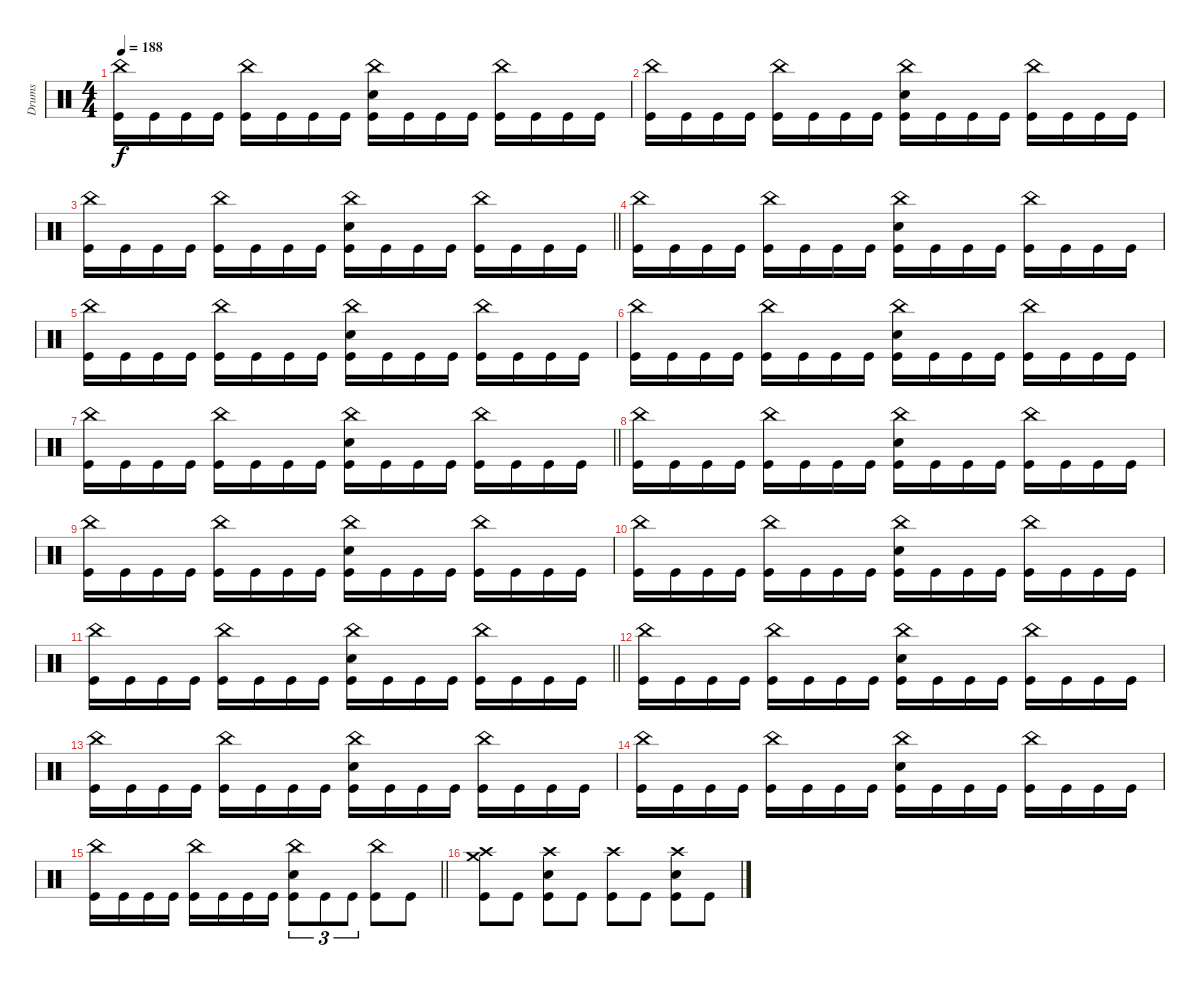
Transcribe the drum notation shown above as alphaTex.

\track ("Drums" "Drums") {instrument percussion}
\staff
\articulation defaults
\ts (4 4)
\tempo 188
\clef neutral
\ks c
("China (hit)" "Kick (hit)").16{dy f} "Kick (hit)".16 "Kick (hit)".16 "Kick (hit)".16 ("China (hit)" "Kick (hit)").16 "Kick (hit)".16 "Kick (hit)".16 "Kick (hit)".16 ("China (hit)" "Electric Snare (hit)" "Kick (hit)").16 "Kick (hit)".16 "Kick (hit)".16 "Kick (hit)".16 ("China (hit)" "Kick (hit)").16 "Kick (hit)".16 "Kick (hit)".16 "Kick (hit)".16 |
("China (hit)" "Kick (hit)").16 "Kick (hit)".16 "Kick (hit)".16 "Kick (hit)".16 ("China (hit)" "Kick (hit)").16 "Kick (hit)".16 "Kick (hit)".16 "Kick (hit)".16 ("China (hit)" "Electric Snare (hit)" "Kick (hit)").16 "Kick (hit)".16 "Kick (hit)".16 "Kick (hit)".16 ("China (hit)" "Kick (hit)").16 "Kick (hit)".16 "Kick (hit)".16 "Kick (hit)".16 |
\barLineRight lightlight
("China (hit)" "Kick (hit)").16 "Kick (hit)".16 "Kick (hit)".16 "Kick (hit)".16 ("China (hit)" "Kick (hit)").16 "Kick (hit)".16 "Kick (hit)".16 "Kick (hit)".16 ("China (hit)" "Electric Snare (hit)" "Kick (hit)").16 "Kick (hit)".16 "Kick (hit)".16 "Kick (hit)".16 ("China (hit)" "Kick (hit)").16 "Kick (hit)".16 "Kick (hit)".16 "Kick (hit)".16 |
("China (hit)" "Kick (hit)").16 "Kick (hit)".16 "Kick (hit)".16 "Kick (hit)".16 ("China (hit)" "Kick (hit)").16 "Kick (hit)".16 "Kick (hit)".16 "Kick (hit)".16 ("China (hit)" "Electric Snare (hit)" "Kick (hit)").16 "Kick (hit)".16 "Kick (hit)".16 "Kick (hit)".16 ("China (hit)" "Kick (hit)").16 "Kick (hit)".16 "Kick (hit)".16 "Kick (hit)".16 |
("China (hit)" "Kick (hit)").16 "Kick (hit)".16 "Kick (hit)".16 "Kick (hit)".16 ("China (hit)" "Kick (hit)").16 "Kick (hit)".16 "Kick (hit)".16 "Kick (hit)".16 ("China (hit)" "Electric Snare (hit)" "Kick (hit)").16 "Kick (hit)".16 "Kick (hit)".16 "Kick (hit)".16 ("China (hit)" "Kick (hit)").16 "Kick (hit)".16 "Kick (hit)".16 "Kick (hit)".16 |
("China (hit)" "Kick (hit)").16 "Kick (hit)".16 "Kick (hit)".16 "Kick (hit)".16 ("China (hit)" "Kick (hit)").16 "Kick (hit)".16 "Kick (hit)".16 "Kick (hit)".16 ("China (hit)" "Electric Snare (hit)" "Kick (hit)").16 "Kick (hit)".16 "Kick (hit)".16 "Kick (hit)".16 ("China (hit)" "Kick (hit)").16 "Kick (hit)".16 "Kick (hit)".16 "Kick (hit)".16 |
\barLineRight lightlight
("China (hit)" "Kick (hit)").16 "Kick (hit)".16 "Kick (hit)".16 "Kick (hit)".16 ("China (hit)" "Kick (hit)").16 "Kick (hit)".16 "Kick (hit)".16 "Kick (hit)".16 ("China (hit)" "Electric Snare (hit)" "Kick (hit)").16 "Kick (hit)".16 "Kick (hit)".16 "Kick (hit)".16 ("China (hit)" "Kick (hit)").16 "Kick (hit)".16 "Kick (hit)".16 "Kick (hit)".16 |
("China (hit)" "Kick (hit)").16 "Kick (hit)".16 "Kick (hit)".16 "Kick (hit)".16 ("China (hit)" "Kick (hit)").16 "Kick (hit)".16 "Kick (hit)".16 "Kick (hit)".16 ("China (hit)" "Electric Snare (hit)" "Kick (hit)").16 "Kick (hit)".16 "Kick (hit)".16 "Kick (hit)".16 ("China (hit)" "Kick (hit)").16 "Kick (hit)".16 "Kick (hit)".16 "Kick (hit)".16 |
("China (hit)" "Kick (hit)").16 "Kick (hit)".16 "Kick (hit)".16 "Kick (hit)".16 ("China (hit)" "Kick (hit)").16 "Kick (hit)".16 "Kick (hit)".16 "Kick (hit)".16 ("China (hit)" "Electric Snare (hit)" "Kick (hit)").16 "Kick (hit)".16 "Kick (hit)".16 "Kick (hit)".16 ("China (hit)" "Kick (hit)").16 "Kick (hit)".16 "Kick (hit)".16 "Kick (hit)".16 |
("China (hit)" "Kick (hit)").16 "Kick (hit)".16 "Kick (hit)".16 "Kick (hit)".16 ("China (hit)" "Kick (hit)").16 "Kick (hit)".16 "Kick (hit)".16 "Kick (hit)".16 ("China (hit)" "Electric Snare (hit)" "Kick (hit)").16 "Kick (hit)".16 "Kick (hit)".16 "Kick (hit)".16 ("China (hit)" "Kick (hit)").16 "Kick (hit)".16 "Kick (hit)".16 "Kick (hit)".16 |
\barLineRight lightlight
("China (hit)" "Kick (hit)").16 "Kick (hit)".16 "Kick (hit)".16 "Kick (hit)".16 ("China (hit)" "Kick (hit)").16 "Kick (hit)".16 "Kick (hit)".16 "Kick (hit)".16 ("China (hit)" "Electric Snare (hit)" "Kick (hit)").16 "Kick (hit)".16 "Kick (hit)".16 "Kick (hit)".16 ("China (hit)" "Kick (hit)").16 "Kick (hit)".16 "Kick (hit)".16 "Kick (hit)".16 |
("China (hit)" "Kick (hit)").16 "Kick (hit)".16 "Kick (hit)".16 "Kick (hit)".16 ("China (hit)" "Kick (hit)").16 "Kick (hit)".16 "Kick (hit)".16 "Kick (hit)".16 ("China (hit)" "Electric Snare (hit)" "Kick (hit)").16 "Kick (hit)".16 "Kick (hit)".16 "Kick (hit)".16 ("China (hit)" "Kick (hit)").16 "Kick (hit)".16 "Kick (hit)".16 "Kick (hit)".16 |
("China (hit)" "Kick (hit)").16 "Kick (hit)".16 "Kick (hit)".16 "Kick (hit)".16 ("China (hit)" "Kick (hit)").16 "Kick (hit)".16 "Kick (hit)".16 "Kick (hit)".16 ("China (hit)" "Electric Snare (hit)" "Kick (hit)").16 "Kick (hit)".16 "Kick (hit)".16 "Kick (hit)".16 ("China (hit)" "Kick (hit)").16 "Kick (hit)".16 "Kick (hit)".16 "Kick (hit)".16 |
("China (hit)" "Kick (hit)").16 "Kick (hit)".16 "Kick (hit)".16 "Kick (hit)".16 ("China (hit)" "Kick (hit)").16 "Kick (hit)".16 "Kick (hit)".16 "Kick (hit)".16 ("China (hit)" "Electric Snare (hit)" "Kick (hit)").16 "Kick (hit)".16 "Kick (hit)".16 "Kick (hit)".16 ("China (hit)" "Kick (hit)").16 "Kick (hit)".16 "Kick (hit)".16 "Kick (hit)".16 |
\barLineRight lightlight
("China (hit)" "Kick (hit)").16 "Kick (hit)".16 "Kick (hit)".16 "Kick (hit)".16 ("China (hit)" "Kick (hit)").16 "Kick (hit)".16 "Kick (hit)".16 "Kick (hit)".16 ("China (hit)" "Electric Snare (hit)" "Kick (hit)").8{tu (3 2)} "Kick (hit)".8{tu (3 2)} "Kick (hit)".8{tu (3 2)} ("China (hit)" "Kick (hit)").8 "Kick (hit)".8 |
("Crash high (hit)" "Crash medium (hit)" "Kick (hit)").8 "Kick (hit)".8 ("Crash high (hit)" "Electric Snare (hit)" "Kick (hit)").8 "Kick (hit)".8 ("Crash high (hit)" "Kick (hit)").8 "Kick (hit)".8 ("Crash high (hit)" "Electric Snare (hit)" "Kick (hit)").8 "Kick (hit)".8
